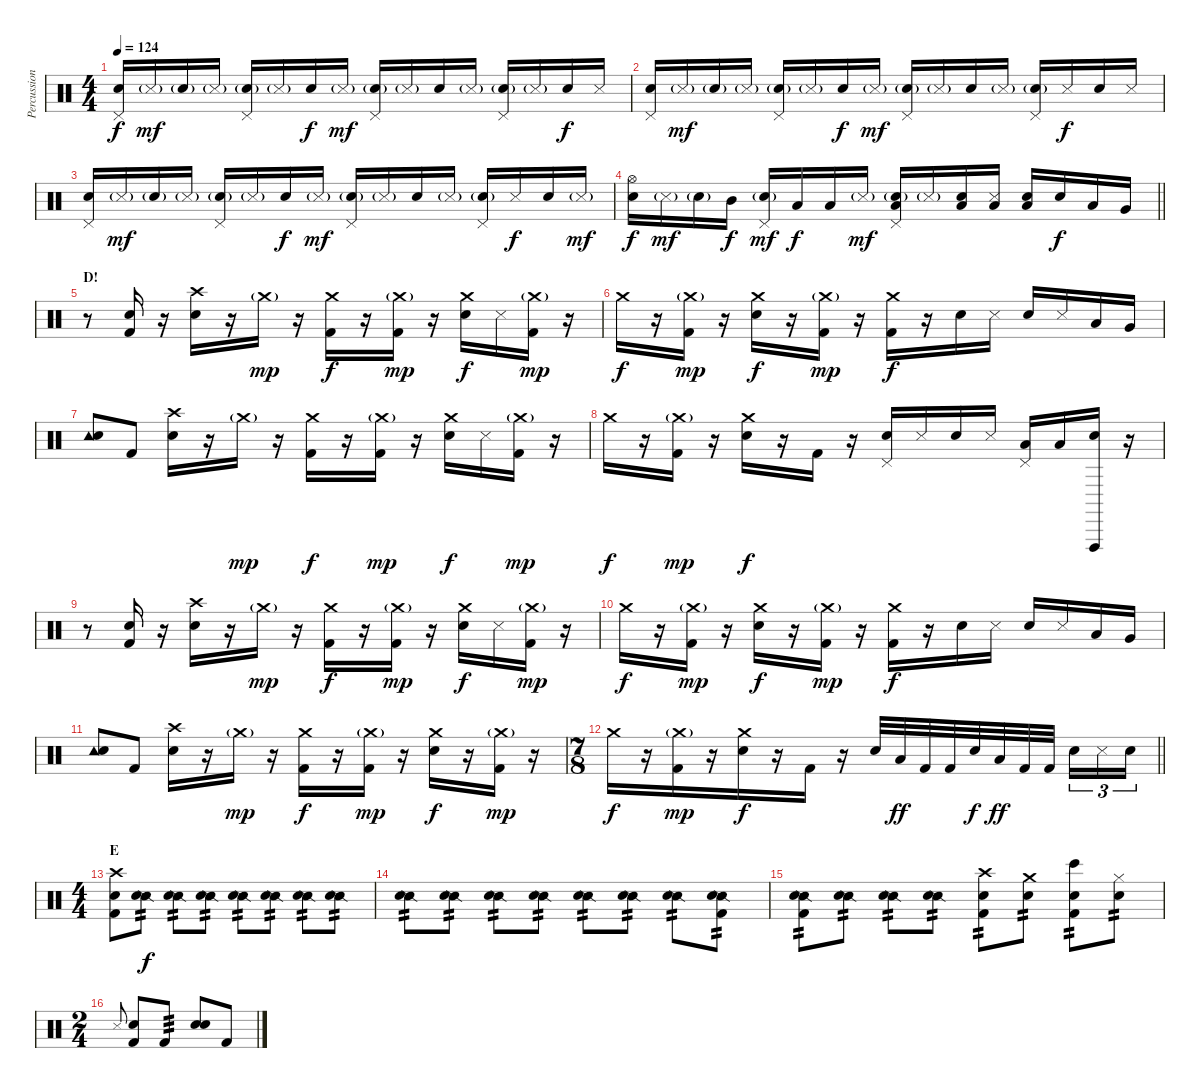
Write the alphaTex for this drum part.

\track ("Percussion" "Percussion") {instrument percussion}
\staff {score}
\articulation defaults
\ts (4 4)
\tempo 124
\clef neutral
\ks c
("Pedal Hi-Hat (hit)" "Snare (hit) 2").16{dy f} "Metronome (hit)"{g}.16{dy mf} "Snare (hit) 2"{g}.16 "Metronome (hit)"{g}.16 ("Pedal Hi-Hat (hit)" "Snare (hit) 2"{g}).16 "Metronome (hit)"{g}.16 "Snare (hit) 2".16{dy f} "Metronome (hit)"{g}.16{dy mf} ("Pedal Hi-Hat (hit)" "Snare (hit) 2"{g}).16 "Metronome (hit)"{g}.16 "Snare (hit) 2".16 "Metronome (hit)"{g}.16 ("Pedal Hi-Hat (hit)" "Snare (hit) 2"{g}).16 "Metronome (hit)"{g}.16 "Snare (hit) 2".16{dy f} "Metronome (hit)".16 |
("Pedal Hi-Hat (hit)" "Snare (hit) 2").16 "Metronome (hit)"{g}.16{dy mf} "Snare (hit) 2"{g}.16 "Metronome (hit)"{g}.16 ("Pedal Hi-Hat (hit)" "Snare (hit) 2"{g}).16 "Metronome (hit)"{g}.16 "Snare (hit) 2".16{dy f} "Metronome (hit)"{g}.16{dy mf} ("Pedal Hi-Hat (hit)" "Snare (hit) 2"{g}).16 "Metronome (hit)"{g}.16 "Snare (hit) 2".16 "Metronome (hit)"{g}.16 ("Pedal Hi-Hat (hit)" "Snare (hit) 2"{g}).16 "Metronome (hit)".16{dy f} "Snare (hit) 2".16 "Metronome (hit)".16 |
("Pedal Hi-Hat (hit)" "Snare (hit) 2").16 "Metronome (hit)"{g}.16{dy mf} "Snare (hit) 2"{g}.16 "Metronome (hit)"{g}.16 ("Pedal Hi-Hat (hit)" "Snare (hit) 2"{g}).16 "Metronome (hit)"{g}.16 "Snare (hit) 2".16{dy f} "Metronome (hit)"{g}.16{dy mf} ("Pedal Hi-Hat (hit)" "Snare (hit) 2"{g}).16 "Metronome (hit)"{g}.16 "Snare (hit) 2".16 "Metronome (hit)"{g}.16 ("Pedal Hi-Hat (hit)" "Snare (hit) 2"{g}).16 "Metronome (hit)".16{dy f} "Snare (hit) 2".16 "Metronome (hit)"{g}.16{dy mf} |
\barLineRight lightlight
("Hi-Hat (open)" "Snare (hit) 2").16{dy f} "Metronome (hit)"{g}.16{dy mf} "Snare (hit) 2"{g}.16 "Mid Tom (hit)".16{dy f} ("Pedal Hi-Hat (hit)" "Snare (hit) 2"{g}).16{dy mf} "Low Tom (hit)".16{dy f} "Low Tom (hit)".16 "Metronome (hit)"{g}.16{dy mf} ("Pedal Hi-Hat (hit)" "Snare (hit) 2"{g} "Low Floor Tom (hit)").16 "Metronome (hit)"{g}.16 ("Low Tom (hit)" "Snare (hit) 2").16 ("Low Tom (hit)" "Metronome (hit)").16 ("Low Tom (hit)" "Snare (hit) 2").16 "Snare (hit) 2".16{dy f} "Low Tom (hit)".16 "Very Low Tom (hit)".16 |
\section ("" "D!")
r.8 ("Snare (hit)" "Kick (hit) 2").16 r.16 ("Crash high (hit)" "Snare (hit) 2").16 r.16 "Crash medium (hit)"{g}.16{dy mp} r.16 ("Crash medium (hit)" "Kick (hit) 2").16{dy f} r.16 ("Crash medium (hit)"{g} "Kick (hit) 2").16{dy mp} r.16 ("Crash medium (hit)" "Snare (hit) 2").16{dy f} "Metronome (hit)".16 ("Crash medium (hit)"{g} "Kick (hit) 2").16{dy mp} r.16 |
"Crash medium (hit)".16{dy f} r.16 ("Crash medium (hit)"{g} "Kick (hit) 2").16{dy mp} r.16 ("Crash medium (hit)" "Snare (hit) 2").16{dy f} r.16 ("Crash medium (hit)"{g} "Kick (hit) 2").16{dy mp} r.16 ("Crash medium (hit)" "Kick (hit) 2").16{dy f} r.16 "Snare (hit) 2".16 "Metronome (hit)".16 "Snare (hit) 2".16 "Metronome (hit)".16 "Low Tom (hit)".16 "Very Low Tom (hit)".16 |
("Tambourine (hit)" "Snare (hit) 2").8 "Kick (hit) 2".8 ("Crash high (hit)" "Snare (hit) 2").16 r.16 "Crash medium (hit)"{g}.16{dy mp} r.16 ("Crash medium (hit)" "Kick (hit) 2").16{dy f} r.16 ("Crash medium (hit)"{g} "Kick (hit) 2").16{dy mp} r.16 ("Crash medium (hit)" "Snare (hit) 2").16{dy f} "Metronome (hit)".16 ("Crash medium (hit)"{g} "Kick (hit) 2").16{dy mp} r.16 |
"Crash medium (hit)".16{dy f} r.16 ("Crash medium (hit)"{g} "Kick (hit) 2").16{dy mp} r.16 ("Crash medium (hit)" "Snare (hit) 2").16{dy f} r.16 "Kick (hit) 2".16 r.16 ("Pedal Hi-Hat (hit)" "Snare (hit) 2").16 "Metronome (hit)".16 "Snare (hit) 2".16 "Metronome (hit)".16 ("Pedal Hi-Hat (hit)" "Low Tom (hit)").16 "Low Tom (hit)".16 ("Vibraslap (hit)" "Snare (hit) 2").16 r.16 |
r.8 ("Snare (hit)" "Kick (hit) 2").16 r.16 ("Crash high (hit)" "Snare (hit) 2").16 r.16 "Crash medium (hit)"{g}.16{dy mp} r.16 ("Crash medium (hit)" "Kick (hit) 2").16{dy f} r.16 ("Crash medium (hit)"{g} "Kick (hit) 2").16{dy mp} r.16 ("Crash medium (hit)" "Snare (hit) 2").16{dy f} "Metronome (hit)".16 ("Crash medium (hit)"{g} "Kick (hit) 2").16{dy mp} r.16 |
"Crash medium (hit)".16{dy f} r.16 ("Crash medium (hit)"{g} "Kick (hit) 2").16{dy mp} r.16 ("Crash medium (hit)" "Snare (hit) 2").16{dy f} r.16 ("Crash medium (hit)"{g} "Kick (hit) 2").16{dy mp} r.16 ("Crash medium (hit)" "Kick (hit) 2").16{dy f} r.16 "Snare (hit) 2".16 "Metronome (hit)".16 "Snare (hit) 2".16 "Metronome (hit)".16 "Low Tom (hit)".16 "Very Low Tom (hit)".16 |
("Tambourine (hit)" "Snare (hit) 2").8 "Kick (hit) 2".8 ("Crash high (hit)" "Snare (hit) 2").16 r.16 "Crash medium (hit)"{g}.16{dy mp} r.16 ("Crash medium (hit)" "Kick (hit) 2").16{dy f} r.16 ("Crash medium (hit)"{g} "Kick (hit) 2").16{dy mp} r.16 ("Crash medium (hit)" "Snare (hit) 2").16{dy f} r.16 ("Crash medium (hit)"{g} "Kick (hit) 2").16{dy mp} r.16 |
\ts (7 8)
\barLineRight lightlight "Crash medium (hit)".16{dy f}
r.16 ("Crash medium (hit)"{g} "Kick (hit) 2").16{dy mp} r.16 ("Crash medium (hit)" "Snare (hit) 2").16{dy f} r.16 "Kick (hit) 2".16 r.16 "Snare (hit) 2".32 "Low Tom (hit)".32{dy ff} "Kick (hit) 2".32 "Kick (hit) 2".32 "Snare (hit) 2".32{dy f} "Low Tom (hit)".32{dy ff} "Kick (hit) 2".32 "Kick (hit) 2".32 "Snare (hit) 2".16{tu (3 2)} "Metronome (hit)".16{tu (3 2)} "Snare (hit) 2".16{tu (3 2)} |
\ts (4 4)
\section ("" "E")
("Crash high (hit)" "Snare (hit) 2" "Kick (hit) 2").8 ("Snare (side stick) 2" "Snare (hit) 2").8{tp 2 dy f} ("Snare (side stick) 2" "Snare (hit) 2").8{tp 2} ("Snare (side stick) 2" "Snare (hit) 2").8{tp 2} ("Snare (side stick) 2" "Snare (hit) 2").8{tp 2} ("Snare (side stick) 2" "Snare (hit) 2").8{tp 2} ("Snare (side stick) 2" "Snare (hit) 2").8{tp 2} ("Snare (side stick) 2" "Snare (hit) 2").8{tp 2} |
("Snare (side stick) 2" "Snare (hit) 2").8{tp 2} ("Snare (side stick) 2" "Snare (hit) 2").8{tp 2} ("Snare (side stick) 2" "Snare (hit) 2").8{tp 2} ("Snare (side stick) 2" "Snare (hit) 2").8{tp 2} ("Snare (side stick) 2" "Snare (hit) 2").8{tp 2} ("Snare (side stick) 2" "Snare (hit) 2").8{tp 2} ("Snare (side stick) 2" "Snare (hit) 2").8{tp 2} ("Snare (side stick) 2" "Snare (hit) 2" "Kick (hit) 2").8{tp 2} |
("Snare (side stick) 2" "Snare (hit) 2" "Kick (hit) 2").8{tp 2} ("Snare (side stick) 2" "Snare (hit) 2").8{tp 2} ("Snare (side stick) 2" "Snare (hit) 2").8{tp 2} ("Snare (side stick) 2" "Snare (hit) 2").8{tp 2} ("Crash high (hit)" "Snare (hit) 2" "Kick (hit) 2").8{tp 2} ("Crash medium (hit)" "Snare (hit) 2").8{tp 2} ("Bongo High (hit)" "Snare (hit) 2" "Kick (hit) 2").8{tp 2} ("Hi-Hat (closed)" "Snare (hit) 2").8{tp 2} |
\ts (2 4)
"Metronome (hit)".8{gr onbeat} ("Snare (hit) 2" "Kick (hit) 2").8 "Kick (hit) 2".8{tp 3} ("Snare (hit)" "Snare (hit) 2").8 "Kick (hit) 2".8
